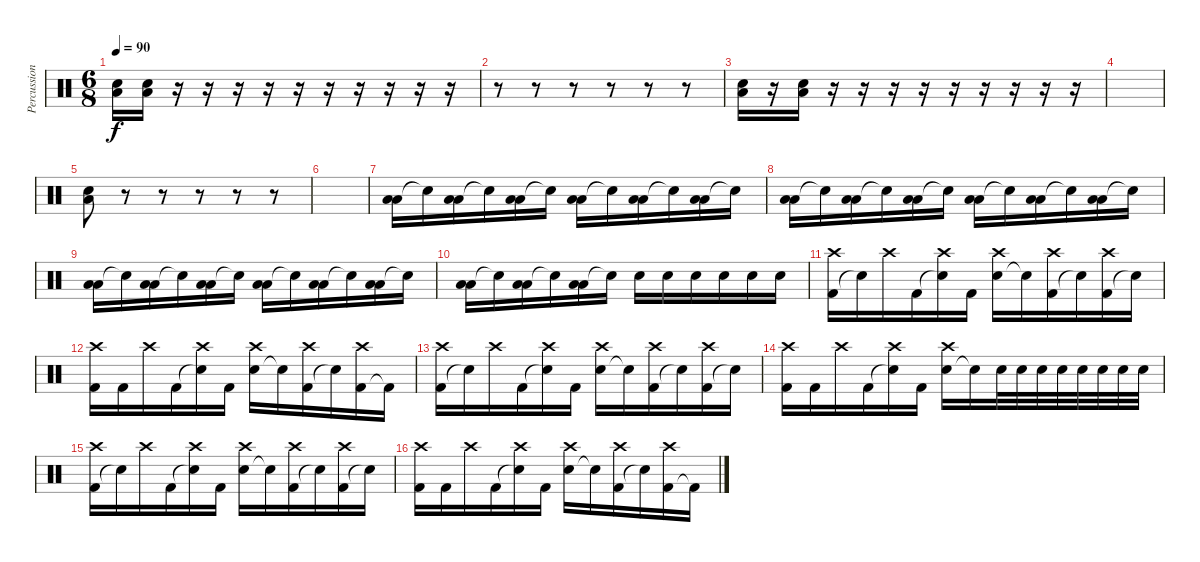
\track ("Percussions" "Percussion") {instrument percussion}
\staff {score}
\articulation defaults
\ts (6 8)
\tempo 90
\clef neutral
\ks c
("Snare (hit) 2" "Low Floor Tom (hit)").16{dy f} ("Snare (hit) 2" "Low Floor Tom (hit)").16 r.16 r.16 r.16 r.16 r.16 r.16 r.16 r.16 r.16 r.16 |
r.8 r.8 r.8 r.8 r.8 r.8 |
("Snare (hit) 2" "Low Floor Tom (hit)").16 r.16 ("Snare (hit) 2" "Low Floor Tom (hit)").16 r.16 r.16 r.16 r.16 r.16 r.16 r.16 r.16 r.16 |
|
("Snare (hit) 2" "Low Floor Tom (hit)").8 r.8 r.8 r.8 r.8 r.8 |
|
("Low Tom (hit)" "Low Floor Tom (hit)").16 "Snare (hit)"{t}.16 ("Low Tom (hit)" "Low Floor Tom (hit)").16 "Snare (hit)"{t}.16 ("Low Tom (hit)" "Low Floor Tom (hit)").16 "Snare (hit)"{t}.16 ("Low Tom (hit)" "Low Floor Tom (hit)").16 "Snare (hit)"{t}.16 ("Low Tom (hit)" "Low Floor Tom (hit)").16 "Snare (hit)"{t}.16 ("Low Tom (hit)" "Low Floor Tom (hit)").16 "Snare (hit)"{t}.16 |
("Low Tom (hit)" "Low Floor Tom (hit)").16 "Snare (hit)"{t}.16 ("Low Tom (hit)" "Low Floor Tom (hit)").16 "Snare (hit)"{t}.16 ("Low Tom (hit)" "Low Floor Tom (hit)").16 "Snare (hit)"{t}.16 ("Low Tom (hit)" "Low Floor Tom (hit)").16 "Snare (hit)"{t}.16 ("Low Tom (hit)" "Low Floor Tom (hit)").16 "Snare (hit)"{t}.16 ("Low Tom (hit)" "Low Floor Tom (hit)").16 "Snare (hit)"{t}.16 |
("Low Tom (hit)" "Low Floor Tom (hit)").16 "Snare (hit)"{t}.16 ("Low Tom (hit)" "Low Floor Tom (hit)").16 "Snare (hit)"{t}.16 ("Low Tom (hit)" "Low Floor Tom (hit)").16 "Snare (hit)"{t}.16 ("Low Tom (hit)" "Low Floor Tom (hit)").16 "Snare (hit)"{t}.16 ("Low Tom (hit)" "Low Floor Tom (hit)").16 "Snare (hit)"{t}.16 ("Low Tom (hit)" "Low Floor Tom (hit)").16 "Snare (hit)"{t}.16 |
("Low Tom (hit)" "Low Floor Tom (hit)").16 "Snare (hit)"{t}.16 ("Low Tom (hit)" "Low Floor Tom (hit)").16 "Snare (hit)"{t}.16 ("Low Tom (hit)" "Low Floor Tom (hit)").16 "Snare (hit)"{t}.16 "Snare (hit) 2".16 "Snare (hit) 2".16 "Snare (hit) 2".16 "Snare (hit) 2".16 "Snare (hit) 2".16 "Snare (hit) 2".16 |
("Kick (hit) 2" "Crash high (hit)").16 "Snare (hit)"{t}.16 "Crash high (hit)".16 "Kick (hit) 2".16 ("Snare (hit)"{t} "Crash high (hit)").16 "Kick (hit) 2".16 ("Snare (hit) 2" "Crash high (hit)").16 "Snare (hit)"{t}.16 ("Kick (hit) 2" "Crash high (hit)").16 "Snare (hit)"{t}.16 ("Kick (hit) 2" "Crash high (hit)").16 "Snare (hit)"{t}.16 |
("Kick (hit) 2" "Crash high (hit)").16 "Kick (hit) 2".16 "Crash high (hit)".16 "Kick (hit) 2".16 ("Snare (hit)"{t} "Crash high (hit)").16 "Kick (hit) 2".16 ("Snare (hit) 2" "Crash high (hit)").16 "Snare (hit)"{t}.16 ("Kick (hit) 2" "Crash high (hit)").16 "Snare (hit)"{t}.16 ("Kick (hit) 2" "Crash high (hit)").16 "Kick (hit) 2"{t}.16 |
("Kick (hit) 2" "Crash high (hit)").16 "Snare (hit)"{t}.16 "Crash high (hit)".16 "Kick (hit) 2".16 ("Snare (hit)"{t} "Crash high (hit)").16 "Kick (hit) 2".16 ("Snare (hit) 2" "Crash high (hit)").16 "Snare (hit)"{t}.16 ("Kick (hit) 2" "Crash high (hit)").16 "Snare (hit)"{t}.16 ("Kick (hit) 2" "Crash high (hit)").16 "Snare (hit)"{t}.16 |
("Kick (hit) 2" "Crash high (hit)").16 "Kick (hit) 2".16 "Crash high (hit)".16 "Kick (hit) 2".16 ("Snare (hit)"{t} "Crash high (hit)").16 "Kick (hit) 2".16 ("Snare (hit) 2" "Crash high (hit)").16 "Snare (hit)"{t}.16 "Snare (hit) 2".32 "Snare (hit) 2".32 "Snare (hit) 2".32 "Snare (hit) 2".32 "Snare (hit) 2".32 "Snare (hit) 2".32 "Snare (hit) 2".32 "Snare (hit) 2".32 |
("Kick (hit) 2" "Crash high (hit)").16 "Snare (hit)"{t}.16 "Crash high (hit)".16 "Kick (hit) 2".16 ("Snare (hit)"{t} "Crash high (hit)").16 "Kick (hit) 2".16 ("Snare (hit) 2" "Crash high (hit)").16 "Snare (hit)"{t}.16 ("Kick (hit) 2" "Crash high (hit)").16 "Snare (hit)"{t}.16 ("Kick (hit) 2" "Crash high (hit)").16 "Snare (hit)"{t}.16 |
("Kick (hit) 2" "Crash high (hit)").16 "Kick (hit) 2".16 "Crash high (hit)".16 "Kick (hit) 2".16 ("Snare (hit)"{t} "Crash high (hit)").16 "Kick (hit) 2".16 ("Snare (hit) 2" "Crash high (hit)").16 "Snare (hit)"{t}.16 ("Kick (hit) 2" "Crash high (hit)").16 "Snare (hit)"{t}.16 ("Kick (hit) 2" "Crash high (hit)").16 "Kick (hit) 2"{t}.16
